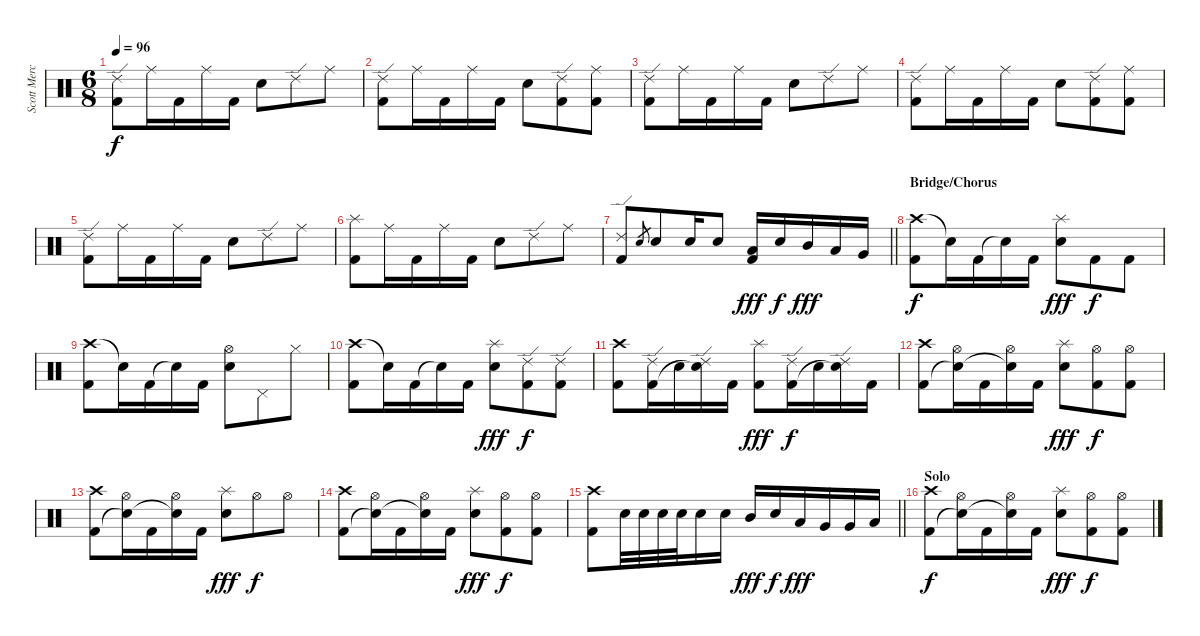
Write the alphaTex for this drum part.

\track ("Scott Mercado Drums" "Scott Merc") {instrument percussion}
\staff {score}
\articulation defaults
\ts (6 8)
\tempo 96
\clef neutral
\ks c
("Ride (edge) 2" "Kick (hit) 2").8{dy f} "Ride (middle)".16 "Kick (hit) 2".16 "Ride (middle)".16 "Kick (hit) 2".16 "Electric Snare (hit)".8 "Ride (edge) 2".8 "Ride (middle)".8 |
("Ride (edge) 2" "Kick (hit) 2").8 "Ride (middle)".16 "Kick (hit) 2".16 "Ride (middle)".16 "Kick (hit) 2".16 "Electric Snare (hit)".8 ("Ride (edge) 2" "Kick (hit) 2").8 ("Ride (middle)" "Kick (hit) 2").8 |
("Ride (edge) 2" "Kick (hit) 2").8 "Ride (middle)".16 "Kick (hit) 2".16 "Ride (middle)".16 "Kick (hit) 2".16 "Electric Snare (hit)".8 "Ride (edge) 2".8 "Ride (middle)".8 |
("Ride (edge) 2" "Kick (hit) 2").8 "Ride (middle)".16 "Kick (hit) 2".16 "Ride (middle)".16 "Kick (hit) 2".16 "Electric Snare (hit)".8 ("Ride (edge) 2" "Kick (hit) 2").8 ("Ride (middle)" "Kick (hit) 2").8 |
("Ride (edge) 2" "Kick (hit) 2").8 "Ride (middle)".16 "Kick (hit) 2".16 "Ride (middle)".16 "Kick (hit) 2".16 "Electric Snare (hit)".8 "Ride (edge) 2".8 "Ride (middle)".8 |
("Splash (hit)" "Kick (hit) 2").8 "Ride (middle)".16 "Kick (hit) 2".16 "Ride (middle)".16 "Kick (hit) 2".16 "Electric Snare (hit)".8 "Ride (edge) 2".8 "Ride (middle)".8 |
\barLineRight lightlight
("Ride (edge) 2" "Kick (hit) 2").8 "Electric Snare (hit)".8{gr} "Electric Snare (hit)".8 "Electric Snare (hit)".16 "Electric Snare (hit)".8 ("Low Tom (hit)" "Kick (hit) 2").16{dy fff} "Electric Snare (hit)".16{dy f} "Mid Tom (hit)".16{dy fff} "Low Tom (hit)".16 "Very Low Tom (hit)".16 |
\section ("" "Bridge/Chorus")
("Crash high (hit)" "Kick (hit) 2").8{dy f} "Snare (hit)"{t}.16 "Kick (hit) 2".16 "Snare (hit)"{t}.16 "Kick (hit) 2".16 ("Splash (hit)" "Electric Snare (hit)").8{dy fff} "Kick (hit) 2".8{dy f} "Kick (hit) 2".8 |
("Crash high (hit)" "Kick (hit) 2").8 "Snare (hit)"{t}.16 "Kick (hit) 2".16 "Snare (hit)"{t}.16 "Kick (hit) 2".16 ("Hi-Hat (open)" "Electric Snare (hit)").8 "Pedal Hi-Hat (hit)".8 "Hi-Hat (closed)".8 |
("Crash high (hit)" "Kick (hit) 2").8 "Snare (hit)"{t}.16 "Kick (hit) 2".16 "Snare (hit)"{t}.16 "Kick (hit) 2".16 ("Splash (hit)" "Electric Snare (hit)").8{dy fff} ("Ride (edge) 2" "Kick (hit) 2").8{dy f} ("Ride (edge) 2" "Kick (hit) 2").8 |
("Crash high (hit)" "Kick (hit) 2").8 ("Ride (edge) 2" "Kick (hit) 2").16 "Electric Snare (hit)".16 ("Ride (edge) 2" "Snare (hit)"{t}).16 "Kick (hit) 2".16 ("Splash (hit)" "Kick (hit) 2").8{dy fff} ("Ride (edge) 2" "Kick (hit) 2").16{dy f} "Electric Snare (hit)".16 ("Ride (edge) 2" "Snare (hit)"{t}).16 "Kick (hit) 2".16 |
("Crash high (hit)" "Kick (hit) 2").8 ("Hi-Hat (open)" "Snare (hit)"{t}).16 "Kick (hit) 2".16 ("Hi-Hat (open)" "Snare (hit)"{t}).16 "Kick (hit) 2".16 ("Splash (hit)" "Electric Snare (hit)").8{dy fff} ("Hi-Hat (open)" "Kick (hit) 2").8{dy f} ("Hi-Hat (open)" "Kick (hit) 2").8 |
("Crash high (hit)" "Kick (hit) 2").8 ("Hi-Hat (open)" "Snare (hit)"{t}).16 "Kick (hit) 2".16 ("Hi-Hat (open)" "Snare (hit)"{t}).16 "Kick (hit) 2".16 ("Splash (hit)" "Electric Snare (hit)").8{dy fff} "Hi-Hat (open)".8{dy f} "Hi-Hat (open)".8 |
("Crash high (hit)" "Kick (hit) 2").8 ("Hi-Hat (open)" "Snare (hit)"{t}).16 "Kick (hit) 2".16 ("Hi-Hat (open)" "Snare (hit)"{t}).16 "Kick (hit) 2".16 ("Splash (hit)" "Electric Snare (hit)").8{dy fff} ("Hi-Hat (open)" "Kick (hit) 2").8{dy f} ("Hi-Hat (open)" "Kick (hit) 2").8 |
\barLineRight lightlight
("Crash high (hit)" "Kick (hit) 2").8 "Electric Snare (hit)".32 "Electric Snare (hit)".32 "Electric Snare (hit)".32 "Electric Snare (hit)".32 "Electric Snare (hit)".16 "Electric Snare (hit)".16 "Mid Tom (hit)".16{dy fff} "Electric Snare (hit)".16{dy f} "Low Tom (hit)".16{dy fff} "Very Low Tom (hit)".16 "Very Low Tom (hit)".16 "Low Floor Tom (hit)".16 |
\section ("" "Solo")
("Crash high (hit)" "Kick (hit) 2").8{dy f} ("Hi-Hat (open)" "Snare (hit)"{t}).16 "Kick (hit) 2".16 ("Hi-Hat (open)" "Snare (hit)"{t}).16 "Kick (hit) 2".16 ("Splash (hit)" "Electric Snare (hit)").8{dy fff} ("Hi-Hat (open)" "Kick (hit) 2").8{dy f} ("Hi-Hat (open)" "Kick (hit) 2").8
